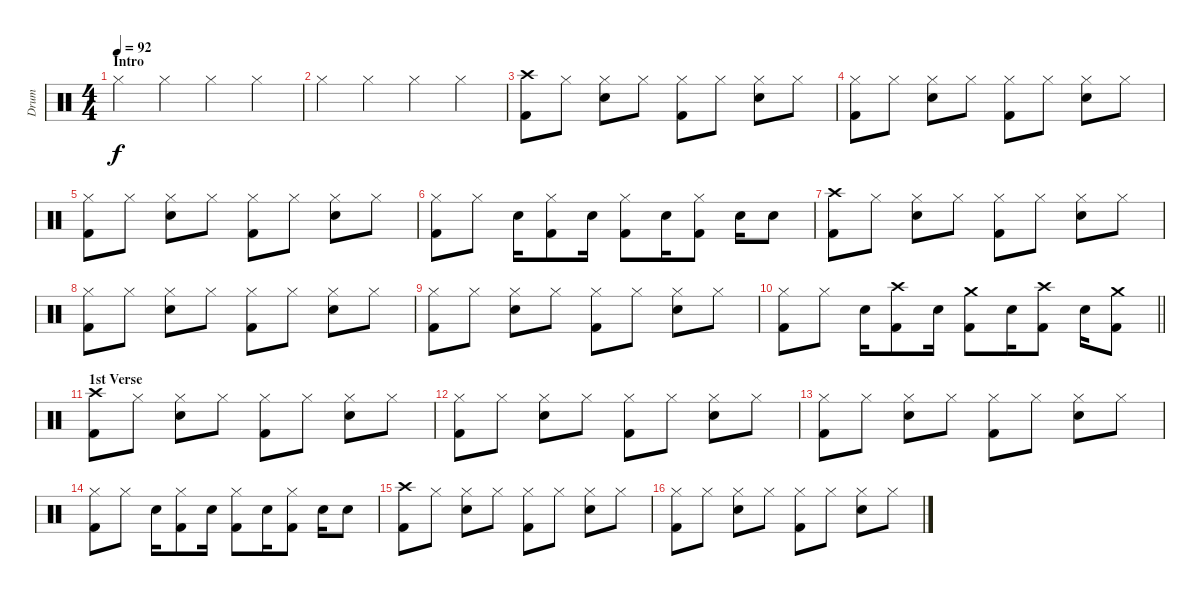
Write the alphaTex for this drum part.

\track ("Drum" "Drum") {instrument percussion}
\staff {score}
\articulation defaults
\ts (4 4)
\section ("" "Intro")
\tempo 92
\clef neutral
\ks c "Hi-Hat (closed)".4{dy f} "Hi-Hat (closed)".4 "Hi-Hat (closed)".4 "Hi-Hat (closed)".4
|
"Hi-Hat (closed)".4 "Hi-Hat (closed)".4 "Hi-Hat (closed)".4 "Hi-Hat (closed)".4 |
("Crash high (hit)" "Kick (hit) 2").8 "Hi-Hat (closed)".8 ("Hi-Hat (closed)" "Snare (hit) 2").8 "Hi-Hat (closed)".8 ("Hi-Hat (closed)" "Kick (hit) 2").8 "Hi-Hat (closed)".8 ("Hi-Hat (closed)" "Snare (hit) 2").8 "Hi-Hat (closed)".8 |
("Hi-Hat (closed)" "Kick (hit) 2").8 "Hi-Hat (closed)".8 ("Hi-Hat (closed)" "Snare (hit) 2").8 "Hi-Hat (closed)".8 ("Hi-Hat (closed)" "Kick (hit) 2").8 "Hi-Hat (closed)".8 ("Hi-Hat (closed)" "Snare (hit) 2").8 "Hi-Hat (closed)".8 |
("Hi-Hat (closed)" "Kick (hit) 2").8 "Hi-Hat (closed)".8 ("Hi-Hat (closed)" "Snare (hit) 2").8 "Hi-Hat (closed)".8 ("Hi-Hat (closed)" "Kick (hit) 2").8 "Hi-Hat (closed)".8 ("Hi-Hat (closed)" "Snare (hit) 2").8 "Hi-Hat (closed)".8 |
("Hi-Hat (closed)" "Kick (hit) 2").8 "Hi-Hat (closed)".8 "Snare (hit) 2".16 ("Hi-Hat (closed)" "Kick (hit) 2").8 "Snare (hit) 2".16 ("Hi-Hat (closed)" "Kick (hit) 2").8 "Snare (hit) 2".16 ("Hi-Hat (closed)" "Kick (hit) 2").8 "Snare (hit) 2".16 "Snare (hit) 2".8 |
("Crash high (hit)" "Kick (hit) 2").8 "Hi-Hat (closed)".8 ("Hi-Hat (closed)" "Snare (hit) 2").8 "Hi-Hat (closed)".8 ("Hi-Hat (closed)" "Kick (hit) 2").8 "Hi-Hat (closed)".8 ("Hi-Hat (closed)" "Snare (hit) 2").8 "Hi-Hat (closed)".8 |
("Hi-Hat (closed)" "Kick (hit) 2").8 "Hi-Hat (closed)".8 ("Hi-Hat (closed)" "Snare (hit) 2").8 "Hi-Hat (closed)".8 ("Hi-Hat (closed)" "Kick (hit) 2").8 "Hi-Hat (closed)".8 ("Hi-Hat (closed)" "Snare (hit) 2").8 "Hi-Hat (closed)".8 |
("Hi-Hat (closed)" "Kick (hit) 2").8 "Hi-Hat (closed)".8 ("Hi-Hat (closed)" "Snare (hit) 2").8 "Hi-Hat (closed)".8 ("Hi-Hat (closed)" "Kick (hit) 2").8 "Hi-Hat (closed)".8 ("Hi-Hat (closed)" "Snare (hit) 2").8 "Hi-Hat (closed)".8 |
\barLineRight lightlight
("Hi-Hat (closed)" "Kick (hit) 2").8 "Hi-Hat (closed)".8 "Snare (hit) 2".16 ("Crash high (hit)" "Kick (hit) 2").8 "Snare (hit) 2".16 ("Crash medium (hit)" "Kick (hit) 2").8 "Snare (hit) 2".16 ("Crash high (hit)" "Kick (hit) 2").8 "Snare (hit) 2".16 ("Crash medium (hit)" "Kick (hit) 2").8 |
\section ("" "1st Verse")
("Crash high (hit)" "Kick (hit) 2").8 "Hi-Hat (closed)".8 ("Hi-Hat (closed)" "Snare (hit) 2").8 "Hi-Hat (closed)".8 ("Hi-Hat (closed)" "Kick (hit) 2").8 "Hi-Hat (closed)".8 ("Hi-Hat (closed)" "Snare (hit) 2").8 "Hi-Hat (closed)".8 |
("Hi-Hat (closed)" "Kick (hit) 2").8 "Hi-Hat (closed)".8 ("Hi-Hat (closed)" "Snare (hit) 2").8 "Hi-Hat (closed)".8 ("Hi-Hat (closed)" "Kick (hit) 2").8 "Hi-Hat (closed)".8 ("Hi-Hat (closed)" "Snare (hit) 2").8 "Hi-Hat (closed)".8 |
("Hi-Hat (closed)" "Kick (hit) 2").8 "Hi-Hat (closed)".8 ("Hi-Hat (closed)" "Snare (hit) 2").8 "Hi-Hat (closed)".8 ("Hi-Hat (closed)" "Kick (hit) 2").8 "Hi-Hat (closed)".8 ("Hi-Hat (closed)" "Snare (hit) 2").8 "Hi-Hat (closed)".8 |
("Hi-Hat (closed)" "Kick (hit) 2").8 "Hi-Hat (closed)".8 "Snare (hit) 2".16 ("Hi-Hat (closed)" "Kick (hit) 2").8 "Snare (hit) 2".16 ("Hi-Hat (closed)" "Kick (hit) 2").8 "Snare (hit) 2".16 ("Hi-Hat (closed)" "Kick (hit) 2").8 "Snare (hit) 2".16 "Snare (hit) 2".8 |
("Crash high (hit)" "Kick (hit) 2").8 "Hi-Hat (closed)".8 ("Hi-Hat (closed)" "Snare (hit) 2").8 "Hi-Hat (closed)".8 ("Hi-Hat (closed)" "Kick (hit) 2").8 "Hi-Hat (closed)".8 ("Hi-Hat (closed)" "Snare (hit) 2").8 "Hi-Hat (closed)".8 |
("Hi-Hat (closed)" "Kick (hit) 2").8 "Hi-Hat (closed)".8 ("Hi-Hat (closed)" "Snare (hit) 2").8 "Hi-Hat (closed)".8 ("Hi-Hat (closed)" "Kick (hit) 2").8 "Hi-Hat (closed)".8 ("Hi-Hat (closed)" "Snare (hit) 2").8 "Hi-Hat (closed)".8
